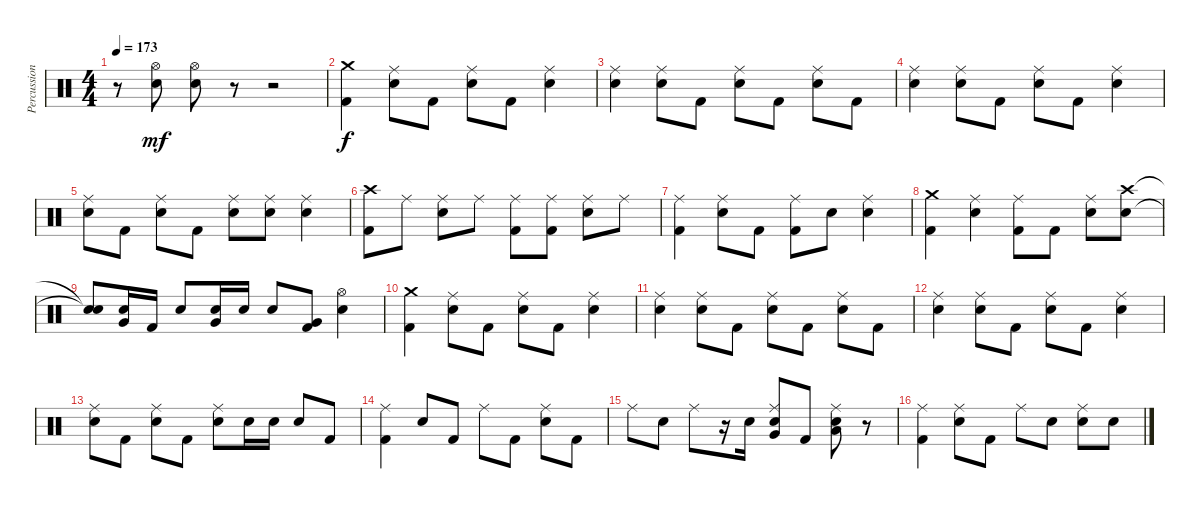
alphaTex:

\track ("Percussion" "Percussion") {instrument percussion}
\staff {score}
\articulation defaults
\ts (4 4)
\tempo 173
\clef neutral
\ks c
r.8{dy f} ("Hi-Hat (open)" "Electric Snare (hit)").8{dy mf} ("Hi-Hat (open)" "Electric Snare (hit)").8 r.8 r.2 |
("Crash medium (hit)" "Kick (hit) 2").4{dy f} ("Ride (middle)" "Electric Snare (hit)").8 "Kick (hit) 2".8 ("Ride (middle)" "Electric Snare (hit)").8 "Kick (hit) 2".8 ("Ride (middle)" "Electric Snare (hit)").4 |
("Ride (middle)" "Electric Snare (hit)").4 ("Ride (middle)" "Electric Snare (hit)").8 "Kick (hit) 2".8 ("Ride (middle)" "Electric Snare (hit)").8 "Kick (hit) 2".8 ("Ride (middle)" "Electric Snare (hit)").8 "Kick (hit) 2".8 |
("Ride (middle)" "Electric Snare (hit)").4 ("Ride (middle)" "Electric Snare (hit)").8 "Kick (hit) 2".8 ("Ride (middle)" "Electric Snare (hit)").8 "Kick (hit) 2".8 ("Ride (middle)" "Electric Snare (hit)").4 |
("Ride (middle)" "Electric Snare (hit)").8 "Kick (hit) 2".8 ("Ride (middle)" "Electric Snare (hit)").8 "Kick (hit) 2".8 ("Ride (middle)" "Electric Snare (hit)").8 ("Ride (middle)" "Electric Snare (hit)").8 ("Ride (middle)" "Electric Snare (hit)").4 |
("Crash high (hit)" "Kick (hit) 2").8 "Ride (middle)".8 ("Ride (middle)" "Electric Snare (hit)").8 "Ride (middle)".8 ("Ride (middle)" "Kick (hit) 2").8 ("Ride (middle)" "Kick (hit) 2").8 ("Ride (middle)" "Electric Snare (hit)").8 "Ride (middle)".8 |
("Ride (middle)" "Kick (hit) 2").4 ("Ride (middle)" "Electric Snare (hit)").8 "Kick (hit) 2".8 ("Ride (middle)" "Kick (hit) 2").8 "Electric Snare (hit)".8 ("Ride (middle)" "Electric Snare (hit)").4 |
("Crash medium (hit)" "Kick (hit) 2").4 ("Ride (middle)" "Electric Snare (hit)").4 ("Ride (middle)" "Kick (hit) 2").8 "Kick (hit) 2".8 ("Ride (middle)" "Electric Snare (hit)").8 ("Crash high (hit)" "Electric Snare (hit)").8 |
("Snare (hit)"{t} "Snare (hit)"{t}).8 ("Very Low Tom (hit)" "Electric Snare (hit)").16 "Kick (hit) 2".16 "Electric Snare (hit)".8 ("Very Low Tom (hit)" "Electric Snare (hit)").16 "Electric Snare (hit)".16 "Electric Snare (hit)".8 ("Very Low Tom (hit)" "Kick (hit) 2").8 ("Hi-Hat (open)" "Electric Snare (hit)").4 |
("Crash medium (hit)" "Kick (hit) 2").4 ("Ride (middle)" "Electric Snare (hit)").8 "Kick (hit) 2".8 ("Ride (middle)" "Electric Snare (hit)").8 "Kick (hit) 2".8 ("Ride (middle)" "Electric Snare (hit)").4 |
("Ride (middle)" "Electric Snare (hit)").4 ("Ride (middle)" "Electric Snare (hit)").8 "Kick (hit) 2".8 ("Ride (middle)" "Electric Snare (hit)").8 "Kick (hit) 2".8 ("Ride (middle)" "Electric Snare (hit)").8 "Kick (hit) 2".8 |
("Ride (middle)" "Electric Snare (hit)").4 ("Ride (middle)" "Electric Snare (hit)").8 "Kick (hit) 2".8 ("Ride (middle)" "Electric Snare (hit)").8 "Kick (hit) 2".8 ("Ride (middle)" "Electric Snare (hit)").4 |
("Ride (middle)" "Electric Snare (hit)").8 "Kick (hit) 2".8 ("Ride (middle)" "Electric Snare (hit)").8 "Kick (hit) 2".8 ("Ride (middle)" "Electric Snare (hit)").8 "Electric Snare (hit)".16 "Electric Snare (hit)".16 "Electric Snare (hit)".8 "Kick (hit) 2".8 |
("Ride (middle)" "Kick (hit) 2").4 "Electric Snare (hit)".8 "Kick (hit) 2".8 "Ride (middle)".8 "Kick (hit) 2".8 ("Ride (middle)" "Electric Snare (hit)").8 "Kick (hit) 2".8 |
"Ride (middle)".8 "Electric Snare (hit)".8 "Ride (middle)".8 r.16 "Electric Snare (hit)".16 ("Ride (middle)" "Very Low Tom (hit)" "Electric Snare (hit)").8 "Kick (hit) 2".8 ("Ride (middle)" "Low Floor Tom (hit)" "Electric Snare (hit)").8 r.8 |
("Ride (middle)" "Kick (hit) 2").4 ("Ride (middle)" "Electric Snare (hit)").8 "Kick (hit) 2".8 "Ride (middle)".8 "Electric Snare (hit)".8 ("Ride (middle)" "Electric Snare (hit)").8 "Electric Snare (hit)".8
